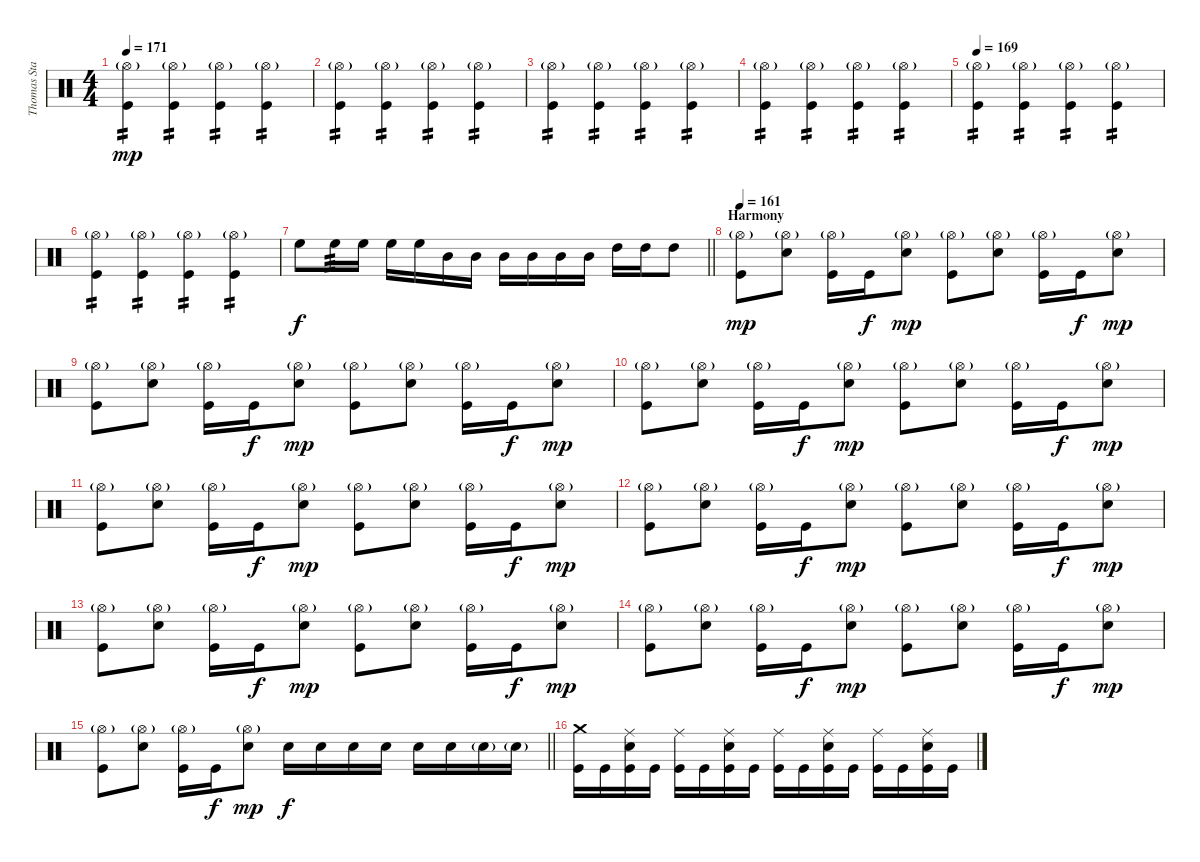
\track ("Thomas Stauch" "Thomas Sta") {instrument percussion}
\staff {score}
\articulation defaults
\ts (4 4)
\tempo 171
\clef neutral
\ks c
("Kick (hit)" "Hi-Hat (open)"{g}).4{tp 2 dy mp} ("Kick (hit)" "Hi-Hat (open)"{g}).4{tp 2} ("Kick (hit)" "Hi-Hat (open)"{g}).4{tp 2} ("Kick (hit)" "Hi-Hat (open)"{g}).4{tp 2} |
("Kick (hit)" "Hi-Hat (open)"{g}).4{tp 2} ("Kick (hit)" "Hi-Hat (open)"{g}).4{tp 2} ("Kick (hit)" "Hi-Hat (open)"{g}).4{tp 2} ("Kick (hit)" "Hi-Hat (open)"{g}).4{tp 2} |
("Kick (hit)" "Hi-Hat (open)"{g}).4{tp 2} ("Kick (hit)" "Hi-Hat (open)"{g}).4{tp 2} ("Kick (hit)" "Hi-Hat (open)"{g}).4{tp 2} ("Kick (hit)" "Hi-Hat (open)"{g}).4{tp 2} |
("Kick (hit)" "Hi-Hat (open)"{g}).4{tp 2} ("Kick (hit)" "Hi-Hat (open)"{g}).4{tp 2} ("Kick (hit)" "Hi-Hat (open)"{g}).4{tp 2} ("Kick (hit)" "Hi-Hat (open)"{g}).4{tp 2} |
\tempo 169
("Kick (hit)" "Hi-Hat (open)"{g}).4{tp 2} ("Kick (hit)" "Hi-Hat (open)"{g}).4{tp 2} ("Kick (hit)" "Hi-Hat (open)"{g}).4{tp 2} ("Kick (hit)" "Hi-Hat (open)"{g}).4{tp 2} |
("Kick (hit)" "Hi-Hat (open)"{g}).4{tp 2} ("Kick (hit)" "Hi-Hat (open)"{g}).4{tp 2} ("Kick (hit)" "Hi-Hat (open)"{g}).4{tp 2} ("Kick (hit)" "Hi-Hat (open)"{g}).4{tp 2} |
\barLineRight lightlight "High Floor Tom (hit)".8{dy f} "High Floor Tom (hit)".16{tp 3} "High Floor Tom (hit)".16 "High Floor Tom (hit)".16 "High Floor Tom (hit)".16 "Mid Tom (hit)".16 "Mid Tom (hit)".16 "Mid Tom (hit)".16 "Mid Tom (hit)".16 "Mid Tom (hit)".16 "Mid Tom (hit)".16 "High Tom (hit)".16 "High Tom (hit)".16 "High Tom (hit)".8
|
\section ("" "Harmony")
\tempo 161
("Hi-Hat (open)"{g} "Kick (hit)").8{dy mp} ("Hi-Hat (open)"{g} "Electric Snare (hit)").8 ("Hi-Hat (open)"{g} "Kick (hit)").16 "Kick (hit)".16{dy f} ("Hi-Hat (open)"{g} "Electric Snare (hit)").8{dy mp} ("Hi-Hat (open)"{g} "Kick (hit)").8 ("Hi-Hat (open)"{g} "Electric Snare (hit)").8 ("Hi-Hat (open)"{g} "Kick (hit)").16 "Kick (hit)".16{dy f} ("Hi-Hat (open)"{g} "Electric Snare (hit)").8{dy mp} |
("Hi-Hat (open)"{g} "Kick (hit)").8 ("Hi-Hat (open)"{g} "Electric Snare (hit)").8 ("Hi-Hat (open)"{g} "Kick (hit)").16 "Kick (hit)".16{dy f} ("Hi-Hat (open)"{g} "Electric Snare (hit)").8{dy mp} ("Hi-Hat (open)"{g} "Kick (hit)").8 ("Hi-Hat (open)"{g} "Electric Snare (hit)").8 ("Hi-Hat (open)"{g} "Kick (hit)").16 "Kick (hit)".16{dy f} ("Hi-Hat (open)"{g} "Electric Snare (hit)").8{dy mp} |
("Hi-Hat (open)"{g} "Kick (hit)").8 ("Hi-Hat (open)"{g} "Electric Snare (hit)").8 ("Hi-Hat (open)"{g} "Kick (hit)").16 "Kick (hit)".16{dy f} ("Hi-Hat (open)"{g} "Electric Snare (hit)").8{dy mp} ("Hi-Hat (open)"{g} "Kick (hit)").8 ("Hi-Hat (open)"{g} "Electric Snare (hit)").8 ("Hi-Hat (open)"{g} "Kick (hit)").16 "Kick (hit)".16{dy f} ("Hi-Hat (open)"{g} "Electric Snare (hit)").8{dy mp} |
("Hi-Hat (open)"{g} "Kick (hit)").8 ("Hi-Hat (open)"{g} "Electric Snare (hit)").8 ("Hi-Hat (open)"{g} "Kick (hit)").16 "Kick (hit)".16{dy f} ("Hi-Hat (open)"{g} "Electric Snare (hit)").8{dy mp} ("Hi-Hat (open)"{g} "Kick (hit)").8 ("Hi-Hat (open)"{g} "Electric Snare (hit)").8 ("Hi-Hat (open)"{g} "Kick (hit)").16 "Kick (hit)".16{dy f} ("Hi-Hat (open)"{g} "Electric Snare (hit)").8{dy mp} |
("Hi-Hat (open)"{g} "Kick (hit)").8 ("Hi-Hat (open)"{g} "Electric Snare (hit)").8 ("Hi-Hat (open)"{g} "Kick (hit)").16 "Kick (hit)".16{dy f} ("Hi-Hat (open)"{g} "Electric Snare (hit)").8{dy mp} ("Hi-Hat (open)"{g} "Kick (hit)").8 ("Hi-Hat (open)"{g} "Electric Snare (hit)").8 ("Hi-Hat (open)"{g} "Kick (hit)").16 "Kick (hit)".16{dy f} ("Hi-Hat (open)"{g} "Electric Snare (hit)").8{dy mp} |
("Hi-Hat (open)"{g} "Kick (hit)").8 ("Hi-Hat (open)"{g} "Electric Snare (hit)").8 ("Hi-Hat (open)"{g} "Kick (hit)").16 "Kick (hit)".16{dy f} ("Hi-Hat (open)"{g} "Electric Snare (hit)").8{dy mp} ("Hi-Hat (open)"{g} "Kick (hit)").8 ("Hi-Hat (open)"{g} "Electric Snare (hit)").8 ("Hi-Hat (open)"{g} "Kick (hit)").16 "Kick (hit)".16{dy f} ("Hi-Hat (open)"{g} "Electric Snare (hit)").8{dy mp} |
("Hi-Hat (open)"{g} "Kick (hit)").8 ("Hi-Hat (open)"{g} "Electric Snare (hit)").8 ("Hi-Hat (open)"{g} "Kick (hit)").16 "Kick (hit)".16{dy f} ("Hi-Hat (open)"{g} "Electric Snare (hit)").8{dy mp} ("Hi-Hat (open)"{g} "Kick (hit)").8 ("Hi-Hat (open)"{g} "Electric Snare (hit)").8 ("Hi-Hat (open)"{g} "Kick (hit)").16 "Kick (hit)".16{dy f} ("Hi-Hat (open)"{g} "Electric Snare (hit)").8{dy mp} |
\barLineRight lightlight
("Hi-Hat (open)"{g} "Kick (hit)").8 ("Hi-Hat (open)"{g} "Electric Snare (hit)").8 ("Hi-Hat (open)"{g} "Kick (hit)").16 "Kick (hit)".16{dy f} ("Hi-Hat (open)"{g} "Electric Snare (hit)").8{dy mp} "Electric Snare (hit)".16{dy f} "Electric Snare (hit)".16 "Electric Snare (hit)".16 "Electric Snare (hit)".16 "Electric Snare (hit)".16 "Electric Snare (hit)".16 "Electric Snare (hit)"{g}.16 "Electric Snare (hit)"{g}.16 |
("Crash medium (hit)" "Kick (hit)").16 "Kick (hit)".16 ("Ride (middle)" "Electric Snare (hit)" "Kick (hit)").16 "Kick (hit)".16 ("Ride (middle)" "Kick (hit)").16 "Kick (hit)".16 ("Ride (middle)" "Electric Snare (hit)" "Kick (hit)").16 "Kick (hit)".16 ("Ride (middle)" "Kick (hit)").16 "Kick (hit)".16 ("Ride (middle)" "Electric Snare (hit)" "Kick (hit)").16 "Kick (hit)".16 ("Ride (middle)" "Kick (hit)").16 "Kick (hit)".16 ("Ride (middle)" "Electric Snare (hit)" "Kick (hit)").16 "Kick (hit)".16
